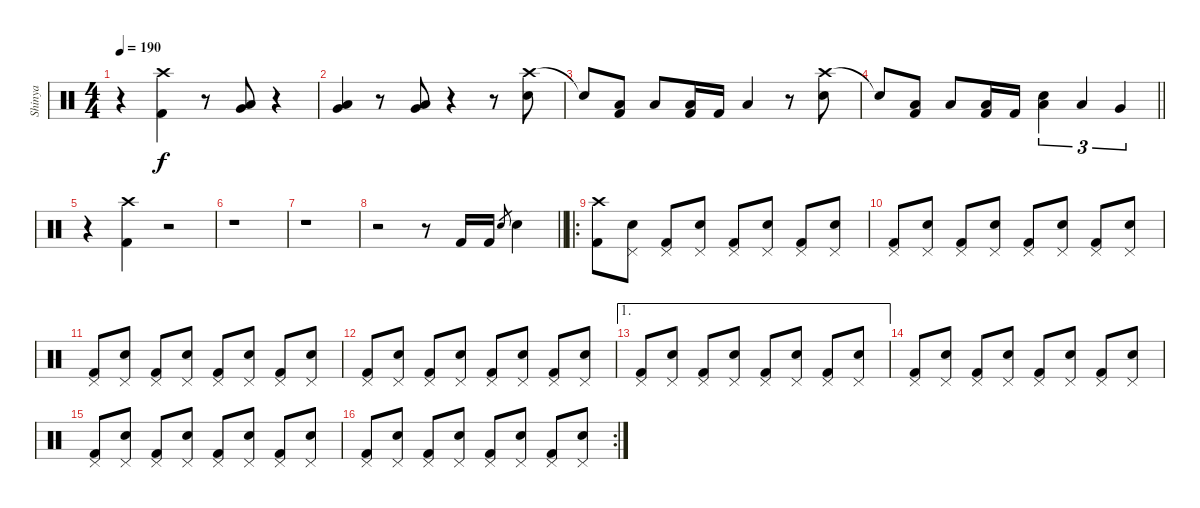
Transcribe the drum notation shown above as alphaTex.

\track ("Shinya" "Shinya") {instrument percussion}
\staff {score}
\articulation defaults
\ts (4 4)
\tempo 190
\clef neutral
\ks c
r.4{dy f} ("Crash high (hit)" "Kick (hit) 2").4 r.8 ("Low Tom (hit)" "Very Low Tom (hit)").8 r.4 |
("Very Low Tom (hit)" "Low Floor Tom (hit)").4 r.8 ("Very Low Tom (hit)" "Low Floor Tom (hit)").8 r.4 r.8 ("Crash high (hit)" "Electric Snare (hit)").8 |
"Snare (hit)"{t}.8 ("Low Floor Tom (hit)" "Kick (hit) 2").8 "Low Floor Tom (hit)".8 ("Low Floor Tom (hit)" "Kick (hit) 2").16 "Kick (hit) 2".16 "Low Floor Tom (hit)".4 r.8 ("Crash high (hit)" "Electric Snare (hit)").8 |
\barLineRight lightlight "Snare (hit)"{t}.8
("Low Floor Tom (hit)" "Kick (hit) 2").8 "Low Floor Tom (hit)".8 ("Low Floor Tom (hit)" "Kick (hit) 2").16 "Kick (hit) 2".16 ("Low Floor Tom (hit)" "Electric Snare (hit)").4{tu (3 2)} "Low Tom (hit)".4{tu (3 2)} "Very Low Tom (hit)".4{tu (3 2)} |
r.4 ("Crash high (hit)" "Kick (hit) 2").4 r.2 |
r.1 |
r.1 |
\barLineRight lightlight
r.2 r.8 "Kick (hit) 2".16 "Kick (hit) 2".16 "Electric Snare (hit)".8{gr} "Electric Snare (hit)".4 |
\ro
("Crash high (hit)" "Kick (hit) 2").8 ("Pedal Hi-Hat (hit)" "Electric Snare (hit)").8 ("Pedal Hi-Hat (hit)" "Kick (hit) 2").8 ("Pedal Hi-Hat (hit)" "Electric Snare (hit)").8 ("Pedal Hi-Hat (hit)" "Kick (hit) 2").8 ("Pedal Hi-Hat (hit)" "Electric Snare (hit)").8 ("Pedal Hi-Hat (hit)" "Kick (hit) 2").8 ("Pedal Hi-Hat (hit)" "Electric Snare (hit)").8 |
("Pedal Hi-Hat (hit)" "Kick (hit) 2").8 ("Pedal Hi-Hat (hit)" "Electric Snare (hit)").8 ("Pedal Hi-Hat (hit)" "Kick (hit) 2").8 ("Pedal Hi-Hat (hit)" "Electric Snare (hit)").8 ("Pedal Hi-Hat (hit)" "Kick (hit) 2").8 ("Pedal Hi-Hat (hit)" "Electric Snare (hit)").8 ("Pedal Hi-Hat (hit)" "Kick (hit) 2").8 ("Pedal Hi-Hat (hit)" "Electric Snare (hit)").8 |
("Pedal Hi-Hat (hit)" "Kick (hit) 2").8 ("Pedal Hi-Hat (hit)" "Electric Snare (hit)").8 ("Pedal Hi-Hat (hit)" "Kick (hit) 2").8 ("Pedal Hi-Hat (hit)" "Electric Snare (hit)").8 ("Pedal Hi-Hat (hit)" "Kick (hit) 2").8 ("Pedal Hi-Hat (hit)" "Electric Snare (hit)").8 ("Pedal Hi-Hat (hit)" "Kick (hit) 2").8 ("Pedal Hi-Hat (hit)" "Electric Snare (hit)").8 |
("Pedal Hi-Hat (hit)" "Kick (hit) 2").8 ("Pedal Hi-Hat (hit)" "Electric Snare (hit)").8 ("Pedal Hi-Hat (hit)" "Kick (hit) 2").8 ("Pedal Hi-Hat (hit)" "Electric Snare (hit)").8 ("Pedal Hi-Hat (hit)" "Kick (hit) 2").8 ("Pedal Hi-Hat (hit)" "Electric Snare (hit)").8 ("Pedal Hi-Hat (hit)" "Kick (hit) 2").8 ("Pedal Hi-Hat (hit)" "Electric Snare (hit)").8 |
\ae 1
("Pedal Hi-Hat (hit)" "Kick (hit) 2").8 ("Pedal Hi-Hat (hit)" "Electric Snare (hit)").8 ("Pedal Hi-Hat (hit)" "Kick (hit) 2").8 ("Pedal Hi-Hat (hit)" "Electric Snare (hit)").8 ("Pedal Hi-Hat (hit)" "Kick (hit) 2").8 ("Pedal Hi-Hat (hit)" "Electric Snare (hit)").8 ("Pedal Hi-Hat (hit)" "Kick (hit) 2").8 ("Pedal Hi-Hat (hit)" "Electric Snare (hit)").8 |
("Pedal Hi-Hat (hit)" "Kick (hit) 2").8 ("Pedal Hi-Hat (hit)" "Electric Snare (hit)").8 ("Pedal Hi-Hat (hit)" "Kick (hit) 2").8 ("Pedal Hi-Hat (hit)" "Electric Snare (hit)").8 ("Pedal Hi-Hat (hit)" "Kick (hit) 2").8 ("Pedal Hi-Hat (hit)" "Electric Snare (hit)").8 ("Pedal Hi-Hat (hit)" "Kick (hit) 2").8 ("Pedal Hi-Hat (hit)" "Electric Snare (hit)").8 |
("Pedal Hi-Hat (hit)" "Kick (hit) 2").8 ("Pedal Hi-Hat (hit)" "Electric Snare (hit)").8 ("Pedal Hi-Hat (hit)" "Kick (hit) 2").8 ("Pedal Hi-Hat (hit)" "Electric Snare (hit)").8 ("Pedal Hi-Hat (hit)" "Kick (hit) 2").8 ("Pedal Hi-Hat (hit)" "Electric Snare (hit)").8 ("Pedal Hi-Hat (hit)" "Kick (hit) 2").8 ("Pedal Hi-Hat (hit)" "Electric Snare (hit)").8 |
\rc 2
("Pedal Hi-Hat (hit)" "Kick (hit) 2").8 ("Pedal Hi-Hat (hit)" "Electric Snare (hit)").8 ("Pedal Hi-Hat (hit)" "Kick (hit) 2").8 ("Pedal Hi-Hat (hit)" "Electric Snare (hit)").8 ("Pedal Hi-Hat (hit)" "Kick (hit) 2").8 ("Pedal Hi-Hat (hit)" "Electric Snare (hit)").8 ("Pedal Hi-Hat (hit)" "Kick (hit) 2").8 ("Pedal Hi-Hat (hit)" "Electric Snare (hit)").8
